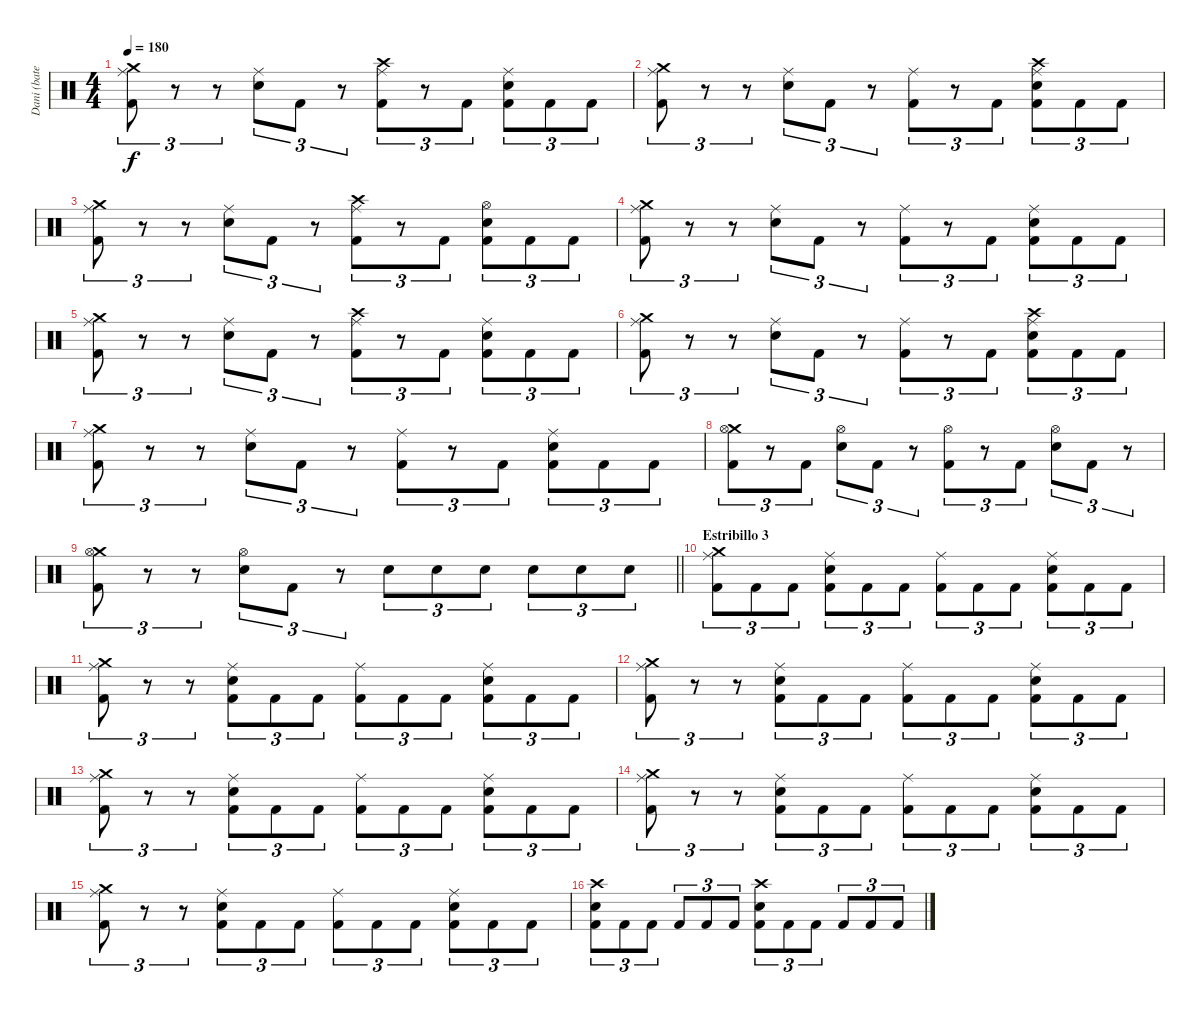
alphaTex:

\track ("Dani (bateria)" "Dani (bate") {instrument percussion}
\staff {score}
\articulation defaults
\ts (4 4)
\tempo 180
\clef neutral
\ks c
("Crash medium (hit)" "Ride (middle)" "Kick (hit) 2").8{tu (3 2) dy f} r.8{tu (3 2)} r.8{tu (3 2)} ("Ride (middle)" "Electric Snare (hit)").8{tu (3 2)} "Kick (hit) 2".8{tu (3 2)} r.8{tu (3 2)} ("Crash high (hit)" "Ride (middle)" "Kick (hit) 2").8{tu (3 2)} r.8{tu (3 2)} "Kick (hit) 2".8{tu (3 2)} ("Ride (middle)" "Electric Snare (hit)" "Kick (hit) 2").8{tu (3 2)} "Kick (hit) 2".8{tu (3 2)} "Kick (hit) 2".8{tu (3 2)} |
("Crash medium (hit)" "Ride (middle)" "Kick (hit) 2").8{tu (3 2)} r.8{tu (3 2)} r.8{tu (3 2)} ("Ride (middle)" "Electric Snare (hit)").8{tu (3 2)} "Kick (hit) 2".8{tu (3 2)} r.8{tu (3 2)} ("Ride (middle)" "Kick (hit) 2").8{tu (3 2)} r.8{tu (3 2)} "Kick (hit) 2".8{tu (3 2)} ("Crash high (hit)" "Ride (middle)" "Electric Snare (hit)" "Kick (hit) 2").8{tu (3 2)} "Kick (hit) 2".8{tu (3 2)} "Kick (hit) 2".8{tu (3 2)} |
("Crash medium (hit)" "Ride (middle)" "Kick (hit) 2").8{tu (3 2)} r.8{tu (3 2)} r.8{tu (3 2)} ("Ride (middle)" "Electric Snare (hit)").8{tu (3 2)} "Kick (hit) 2".8{tu (3 2)} r.8{tu (3 2)} ("Crash high (hit)" "Ride (middle)" "Kick (hit) 2").8{tu (3 2)} r.8{tu (3 2)} "Kick (hit) 2".8{tu (3 2)} ("Hi-Hat (open)" "Electric Snare (hit)" "Kick (hit) 2").8{tu (3 2)} "Kick (hit) 2".8{tu (3 2)} "Kick (hit) 2".8{tu (3 2)} |
("Crash medium (hit)" "Ride (middle)" "Kick (hit) 2").8{tu (3 2)} r.8{tu (3 2)} r.8{tu (3 2)} ("Ride (middle)" "Electric Snare (hit)").8{tu (3 2)} "Kick (hit) 2".8{tu (3 2)} r.8{tu (3 2)} ("Ride (middle)" "Kick (hit) 2").8{tu (3 2)} r.8{tu (3 2)} "Kick (hit) 2".8{tu (3 2)} ("Ride (middle)" "Electric Snare (hit)" "Kick (hit) 2").8{tu (3 2)} "Kick (hit) 2".8{tu (3 2)} "Kick (hit) 2".8{tu (3 2)} |
("Crash medium (hit)" "Ride (middle)" "Kick (hit) 2").8{tu (3 2)} r.8{tu (3 2)} r.8{tu (3 2)} ("Ride (middle)" "Electric Snare (hit)").8{tu (3 2)} "Kick (hit) 2".8{tu (3 2)} r.8{tu (3 2)} ("Crash high (hit)" "Ride (middle)" "Kick (hit) 2").8{tu (3 2)} r.8{tu (3 2)} "Kick (hit) 2".8{tu (3 2)} ("Ride (middle)" "Electric Snare (hit)" "Kick (hit) 2").8{tu (3 2)} "Kick (hit) 2".8{tu (3 2)} "Kick (hit) 2".8{tu (3 2)} |
("Crash medium (hit)" "Ride (middle)" "Kick (hit) 2").8{tu (3 2)} r.8{tu (3 2)} r.8{tu (3 2)} ("Ride (middle)" "Electric Snare (hit)").8{tu (3 2)} "Kick (hit) 2".8{tu (3 2)} r.8{tu (3 2)} ("Ride (middle)" "Kick (hit) 2").8{tu (3 2)} r.8{tu (3 2)} "Kick (hit) 2".8{tu (3 2)} ("Crash high (hit)" "Ride (middle)" "Electric Snare (hit)" "Kick (hit) 2").8{tu (3 2)} "Kick (hit) 2".8{tu (3 2)} "Kick (hit) 2".8{tu (3 2)} |
("Crash medium (hit)" "Ride (middle)" "Kick (hit) 2").8{tu (3 2)} r.8{tu (3 2)} r.8{tu (3 2)} ("Ride (middle)" "Electric Snare (hit)").8{tu (3 2)} "Kick (hit) 2".8{tu (3 2)} r.8{tu (3 2)} ("Ride (middle)" "Kick (hit) 2").8{tu (3 2)} r.8{tu (3 2)} "Kick (hit) 2".8{tu (3 2)} ("Ride (middle)" "Electric Snare (hit)" "Kick (hit) 2").8{tu (3 2)} "Kick (hit) 2".8{tu (3 2)} "Kick (hit) 2".8{tu (3 2)} |
("Crash medium (hit)" "Hi-Hat (open)" "Kick (hit) 2").8{tu (3 2)} r.8{tu (3 2)} "Kick (hit) 2".8{tu (3 2)} ("Hi-Hat (open)" "Electric Snare (hit)").8{tu (3 2)} "Kick (hit) 2".8{tu (3 2)} r.8{tu (3 2)} ("Hi-Hat (open)" "Kick (hit) 2").8{tu (3 2)} r.8{tu (3 2)} "Kick (hit) 2".8{tu (3 2)} ("Hi-Hat (open)" "Electric Snare (hit)").8{tu (3 2)} "Kick (hit) 2".8{tu (3 2)} r.8{tu (3 2)} |
\barLineRight lightlight
("Crash medium (hit)" "Hi-Hat (open)" "Kick (hit) 2").8{tu (3 2)} r.8{tu (3 2)} r.8{tu (3 2)} ("Hi-Hat (open)" "Electric Snare (hit)").8{tu (3 2)} "Kick (hit) 2".8{tu (3 2)} r.8{tu (3 2)} "Electric Snare (hit)".8{tu (3 2)} "Electric Snare (hit)".8{tu (3 2)} "Electric Snare (hit)".8{tu (3 2)} "Electric Snare (hit)".8{tu (3 2)} "Electric Snare (hit)".8{tu (3 2)} "Electric Snare (hit)".8{tu (3 2)} |
\section ("" "Estribillo 3")
("Crash medium (hit)" "Ride (middle)" "Kick (hit) 2").8{tu (3 2)} "Kick (hit) 2".8{tu (3 2)} "Kick (hit) 2".8{tu (3 2)} ("Ride (middle)" "Electric Snare (hit)" "Kick (hit) 2").8{tu (3 2)} "Kick (hit) 2".8{tu (3 2)} "Kick (hit) 2".8{tu (3 2)} ("Ride (middle)" "Kick (hit) 2").8{tu (3 2)} "Kick (hit) 2".8{tu (3 2)} "Kick (hit) 2".8{tu (3 2)} ("Ride (middle)" "Electric Snare (hit)" "Kick (hit) 2").8{tu (3 2)} "Kick (hit) 2".8{tu (3 2)} "Kick (hit) 2".8{tu (3 2)} |
("Crash medium (hit)" "Ride (middle)" "Kick (hit) 2").8{tu (3 2)} r.8{tu (3 2)} r.8{tu (3 2)} ("Ride (middle)" "Electric Snare (hit)" "Kick (hit) 2").8{tu (3 2)} "Kick (hit) 2".8{tu (3 2)} "Kick (hit) 2".8{tu (3 2)} ("Ride (middle)" "Kick (hit) 2").8{tu (3 2)} "Kick (hit) 2".8{tu (3 2)} "Kick (hit) 2".8{tu (3 2)} ("Ride (middle)" "Electric Snare (hit)" "Kick (hit) 2").8{tu (3 2)} "Kick (hit) 2".8{tu (3 2)} "Kick (hit) 2".8{tu (3 2)} |
("Crash medium (hit)" "Ride (middle)" "Kick (hit) 2").8{tu (3 2)} r.8{tu (3 2)} r.8{tu (3 2)} ("Ride (middle)" "Electric Snare (hit)" "Kick (hit) 2").8{tu (3 2)} "Kick (hit) 2".8{tu (3 2)} "Kick (hit) 2".8{tu (3 2)} ("Ride (middle)" "Kick (hit) 2").8{tu (3 2)} "Kick (hit) 2".8{tu (3 2)} "Kick (hit) 2".8{tu (3 2)} ("Ride (middle)" "Electric Snare (hit)" "Kick (hit) 2").8{tu (3 2)} "Kick (hit) 2".8{tu (3 2)} "Kick (hit) 2".8{tu (3 2)} |
("Crash medium (hit)" "Ride (middle)" "Kick (hit) 2").8{tu (3 2)} r.8{tu (3 2)} r.8{tu (3 2)} ("Ride (middle)" "Electric Snare (hit)" "Kick (hit) 2").8{tu (3 2)} "Kick (hit) 2".8{tu (3 2)} "Kick (hit) 2".8{tu (3 2)} ("Ride (middle)" "Kick (hit) 2").8{tu (3 2)} "Kick (hit) 2".8{tu (3 2)} "Kick (hit) 2".8{tu (3 2)} ("Ride (middle)" "Electric Snare (hit)" "Kick (hit) 2").8{tu (3 2)} "Kick (hit) 2".8{tu (3 2)} "Kick (hit) 2".8{tu (3 2)} |
("Crash medium (hit)" "Ride (middle)" "Kick (hit) 2").8{tu (3 2)} r.8{tu (3 2)} r.8{tu (3 2)} ("Ride (middle)" "Electric Snare (hit)" "Kick (hit) 2").8{tu (3 2)} "Kick (hit) 2".8{tu (3 2)} "Kick (hit) 2".8{tu (3 2)} ("Ride (middle)" "Kick (hit) 2").8{tu (3 2)} "Kick (hit) 2".8{tu (3 2)} "Kick (hit) 2".8{tu (3 2)} ("Ride (middle)" "Electric Snare (hit)" "Kick (hit) 2").8{tu (3 2)} "Kick (hit) 2".8{tu (3 2)} "Kick (hit) 2".8{tu (3 2)} |
("Crash medium (hit)" "Ride (middle)" "Kick (hit) 2").8{tu (3 2)} r.8{tu (3 2)} r.8{tu (3 2)} ("Ride (middle)" "Electric Snare (hit)" "Kick (hit) 2").8{tu (3 2)} "Kick (hit) 2".8{tu (3 2)} "Kick (hit) 2".8{tu (3 2)} ("Ride (middle)" "Kick (hit) 2").8{tu (3 2)} "Kick (hit) 2".8{tu (3 2)} "Kick (hit) 2".8{tu (3 2)} ("Ride (middle)" "Electric Snare (hit)" "Kick (hit) 2").8{tu (3 2)} "Kick (hit) 2".8{tu (3 2)} "Kick (hit) 2".8{tu (3 2)} |
("Crash high (hit)" "Electric Snare (hit)" "Kick (hit) 2").8{tu (3 2)} "Kick (hit) 2".8{tu (3 2)} "Kick (hit) 2".8{tu (3 2)} "Kick (hit) 2".8{tu (3 2)} "Kick (hit) 2".8{tu (3 2)} "Kick (hit) 2".8{tu (3 2)} ("Crash high (hit)" "Electric Snare (hit)" "Kick (hit) 2").8{tu (3 2)} "Kick (hit) 2".8{tu (3 2)} "Kick (hit) 2".8{tu (3 2)} "Kick (hit) 2".8{tu (3 2)} "Kick (hit) 2".8{tu (3 2)} "Kick (hit) 2".8{tu (3 2)}
